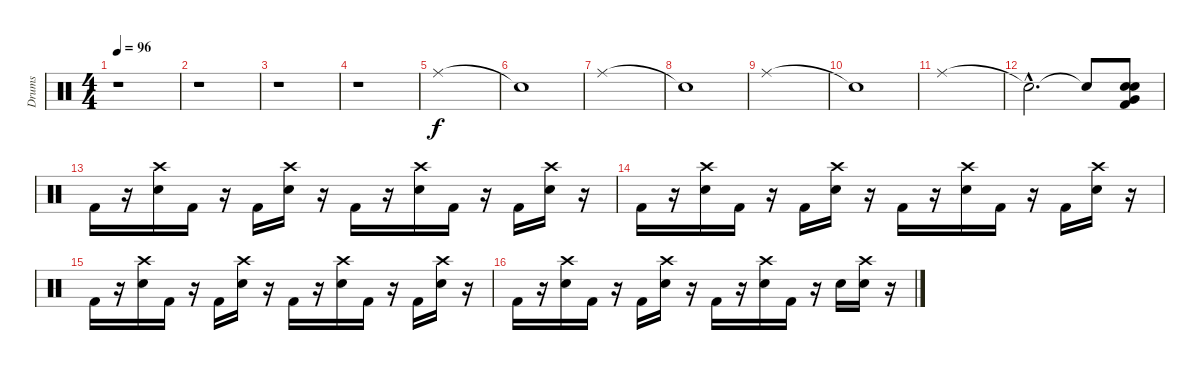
\track ("Drums" "Drums") {instrument percussion}
\staff {score}
\articulation defaults
\ts (4 4)
\tempo 96
\clef neutral
\ks c
r.1{dy f} |
r.1 |
r.1 |
r.1 |
"Ride (middle)".1 |
"Snare (hit)"{t}.1 |
"Ride (middle)".1 |
"Snare (hit)"{t}.1 |
"Ride (middle)".1 |
"Snare (hit)"{t}.1 |
"Ride (middle)".1 |
"Snare (hit)"{hac t}.2{d} "Snare (hit)"{t}.8 ("Snare (hit) 2" "Electric Snare (hit)" "Very Low Tom (hit)" "Kick (hit) 2").8 |
"Kick (hit) 2".16 r.16 ("Crash high (hit)" "Electric Snare (hit)").16 "Kick (hit) 2".16 r.16 "Kick (hit) 2".16 ("Crash high (hit)" "Electric Snare (hit)").16 r.16 "Kick (hit) 2".16 r.16 ("Crash high (hit)" "Electric Snare (hit)").16 "Kick (hit) 2".16 r.16 "Kick (hit) 2".16 ("Crash high (hit)" "Electric Snare (hit)").16 r.16 |
"Kick (hit) 2".16 r.16 ("Crash high (hit)" "Electric Snare (hit)").16 "Kick (hit) 2".16 r.16 "Kick (hit) 2".16 ("Crash high (hit)" "Electric Snare (hit)").16 r.16 "Kick (hit) 2".16 r.16 ("Crash high (hit)" "Electric Snare (hit)").16 "Kick (hit) 2".16 r.16 "Kick (hit) 2".16 ("Crash high (hit)" "Electric Snare (hit)").16 r.16 |
"Kick (hit) 2".16 r.16 ("Crash high (hit)" "Electric Snare (hit)").16 "Kick (hit) 2".16 r.16 "Kick (hit) 2".16 ("Crash high (hit)" "Electric Snare (hit)").16 r.16 "Kick (hit) 2".16 r.16 ("Crash high (hit)" "Electric Snare (hit)").16 "Kick (hit) 2".16 r.16 "Kick (hit) 2".16 ("Crash high (hit)" "Electric Snare (hit)").16 r.16 |
"Kick (hit) 2".16 r.16 ("Crash high (hit)" "Electric Snare (hit)").16 "Kick (hit) 2".16 r.16 "Kick (hit) 2".16 ("Crash high (hit)" "Electric Snare (hit)").16 r.16 "Kick (hit) 2".16 r.16 ("Crash high (hit)" "Electric Snare (hit)").16 "Kick (hit) 2".16 r.16 "Electric Snare (hit)".16 ("Crash high (hit)" "Electric Snare (hit)").16 r.16
